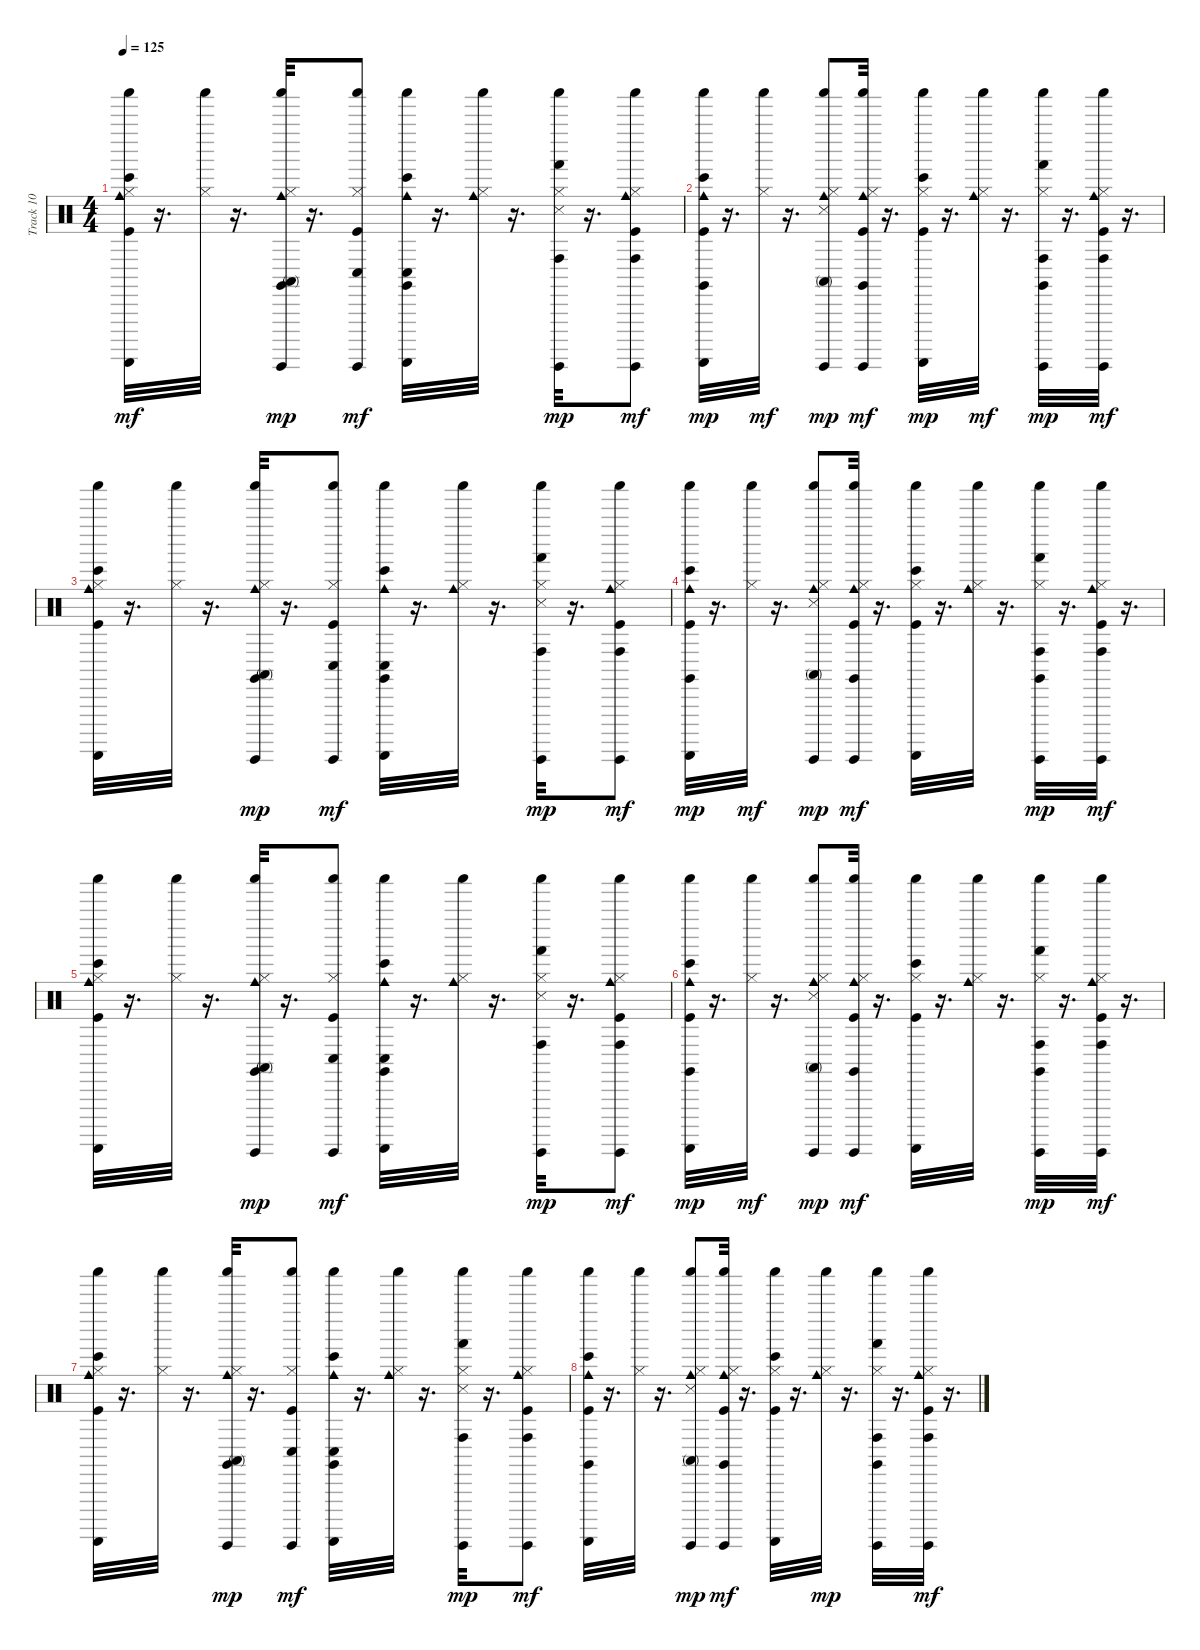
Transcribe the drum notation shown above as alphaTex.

\track ("Track 10" "Track 10") {instrument percussion}
\staff {score}
\articulation defaults
\ts (4 4)
\tempo 125
\clef neutral
\ks c
("Shaker (hit)" "Bongo High (hit)" "Cowbell medium (hit)" "Guiro (scrap-return)" "Kick (hit)" "Hi-Hat (closed)").32{dy mf} r.16{d} ("Shaker (hit)" "Hi-Hat (closed)").32 r.16{d} ("Shaker (hit)" "Claves (hit)" "Conga high (mute)" "Cowbell medium (hit)" "Guiro (hit)" "Hi-Hat (closed)").32{dy mp} r.16{d} ("Shaker (hit)" "Conga low (hit)" "Guiro (hit)" "Kick (hit)" "Hi-Hat (closed)").8{dy mf} ("Shaker (hit)" "Claves (hit)" "Conga low (hit)" "Bongo High (hit)" "Cowbell medium (hit)" "Guiro (scrap-return)").32 r.16{d} ("Shaker (hit)" "Cowbell medium (hit)" "Hi-Hat (closed)").32 r.16{d} ("Shaker (hit)" "Conga high (hit)" "Hand (hit)" "Guiro (hit)" "Hi-Hat (closed)" "Snare (side stick) 3").32{dy mp} r.16{d} ("Shaker (hit)" "Conga high (hit)" "Cowbell medium (hit)" "Guiro (hit)" "Kick (hit)" "Hi-Hat (closed)").8{dy mf} |
("Shaker (hit)" "Claves (hit)" "Bongo High (hit)" "Cowbell medium (hit)" "Guiro (scrap-return)" "Kick (hit)").32{dy mp} r.16{d} ("Shaker (hit)" "Hi-Hat (closed)").32{dy mf} r.16{d} ("Shaker (hit)" "Conga high (mute)" "Cowbell medium (hit)" "Guiro (hit)" "Hi-Hat (closed)" "Snare (side stick) 3").8{dy mp} ("Shaker (hit)" "Claves (hit)" "Cowbell medium (hit)" "Guiro (hit)" "Kick (hit)" "Hi-Hat (closed)").32{dy mf} r.16{d} ("Shaker (hit)" "Bongo High (hit)" "Guiro (scrap-return)" "Kick (hit)" "Hi-Hat (closed)").32{dy mp} r.16{d} ("Shaker (hit)" "Cowbell medium (hit)" "Hi-Hat (closed)").32{dy mf} r.16{d} ("Shaker (hit)" "Claves (hit)" "Conga high (hit)" "Hand (hit)" "Guiro (hit)" "Hi-Hat (closed)").32{dy mp} r.16{d} ("Shaker (hit)" "Conga high (hit)" "Cowbell medium (hit)" "Guiro (hit)" "Kick (hit)" "Hi-Hat (closed)").32{dy mf} r.16{d} |
("Shaker (hit)" "Bongo High (hit)" "Cowbell medium (hit)" "Guiro (scrap-return)" "Kick (hit)" "Hi-Hat (closed)").32 r.16{d} ("Shaker (hit)" "Hi-Hat (closed)").32 r.16{d} ("Shaker (hit)" "Claves (hit)" "Conga high (mute)" "Cowbell medium (hit)" "Guiro (hit)" "Hi-Hat (closed)").32{dy mp} r.16{d} ("Shaker (hit)" "Conga low (hit)" "Guiro (hit)" "Kick (hit)" "Hi-Hat (closed)").8{dy mf} ("Shaker (hit)" "Claves (hit)" "Conga low (hit)" "Bongo High (hit)" "Cowbell medium (hit)" "Guiro (scrap-return)").32 r.16{d} ("Shaker (hit)" "Cowbell medium (hit)" "Hi-Hat (closed)").32 r.16{d} ("Shaker (hit)" "Conga high (hit)" "Hand (hit)" "Guiro (hit)" "Hi-Hat (closed)" "Snare (side stick) 3").32{dy mp} r.16{d} ("Shaker (hit)" "Conga high (hit)" "Cowbell medium (hit)" "Guiro (hit)" "Kick (hit)" "Hi-Hat (closed)").8{dy mf} |
("Shaker (hit)" "Claves (hit)" "Bongo High (hit)" "Cowbell medium (hit)" "Guiro (scrap-return)" "Kick (hit)").32{dy mp} r.16{d} ("Shaker (hit)" "Hi-Hat (closed)").32{dy mf} r.16{d} ("Shaker (hit)" "Conga high (mute)" "Cowbell medium (hit)" "Guiro (hit)" "Hi-Hat (closed)" "Snare (side stick) 3").8{dy mp} ("Shaker (hit)" "Claves (hit)" "Cowbell medium (hit)" "Guiro (hit)" "Kick (hit)" "Hi-Hat (closed)").32{dy mf} r.16{d} ("Shaker (hit)" "Bongo High (hit)" "Guiro (scrap-return)" "Kick (hit)" "Hi-Hat (closed)").32 r.16{d} ("Shaker (hit)" "Cowbell medium (hit)" "Hi-Hat (closed)").32 r.16{d} ("Shaker (hit)" "Claves (hit)" "Conga high (hit)" "Hand (hit)" "Guiro (hit)" "Hi-Hat (closed)").32{dy mp} r.16{d} ("Shaker (hit)" "Conga high (hit)" "Cowbell medium (hit)" "Guiro (hit)" "Kick (hit)" "Hi-Hat (closed)").32{dy mf} r.16{d} |
("Shaker (hit)" "Bongo High (hit)" "Cowbell medium (hit)" "Guiro (scrap-return)" "Kick (hit)" "Hi-Hat (closed)").32 r.16{d} ("Shaker (hit)" "Hi-Hat (closed)").32 r.16{d} ("Shaker (hit)" "Claves (hit)" "Conga high (mute)" "Cowbell medium (hit)" "Guiro (hit)" "Hi-Hat (closed)").32{dy mp} r.16{d} ("Shaker (hit)" "Conga low (hit)" "Guiro (hit)" "Kick (hit)" "Hi-Hat (closed)").8{dy mf} ("Shaker (hit)" "Claves (hit)" "Conga low (hit)" "Bongo High (hit)" "Cowbell medium (hit)" "Guiro (scrap-return)").32 r.16{d} ("Shaker (hit)" "Cowbell medium (hit)" "Hi-Hat (closed)").32 r.16{d} ("Shaker (hit)" "Conga high (hit)" "Hand (hit)" "Guiro (hit)" "Hi-Hat (closed)" "Snare (side stick) 3").32{dy mp} r.16{d} ("Shaker (hit)" "Conga high (hit)" "Cowbell medium (hit)" "Guiro (hit)" "Kick (hit)" "Hi-Hat (closed)").8{dy mf} |
("Shaker (hit)" "Claves (hit)" "Bongo High (hit)" "Cowbell medium (hit)" "Guiro (scrap-return)" "Kick (hit)").32{dy mp} r.16{d} ("Shaker (hit)" "Hi-Hat (closed)").32{dy mf} r.16{d} ("Shaker (hit)" "Conga high (mute)" "Cowbell medium (hit)" "Guiro (hit)" "Hi-Hat (closed)" "Snare (side stick) 3").8{dy mp} ("Shaker (hit)" "Claves (hit)" "Cowbell medium (hit)" "Guiro (hit)" "Kick (hit)" "Hi-Hat (closed)").32{dy mf} r.16{d} ("Shaker (hit)" "Bongo High (hit)" "Guiro (scrap-return)" "Kick (hit)" "Hi-Hat (closed)").32 r.16{d} ("Shaker (hit)" "Cowbell medium (hit)" "Hi-Hat (closed)").32 r.16{d} ("Shaker (hit)" "Claves (hit)" "Conga high (hit)" "Hand (hit)" "Guiro (hit)" "Hi-Hat (closed)").32{dy mp} r.16{d} ("Shaker (hit)" "Conga high (hit)" "Cowbell medium (hit)" "Guiro (hit)" "Kick (hit)" "Hi-Hat (closed)").32{dy mf} r.16{d} |
("Shaker (hit)" "Bongo High (hit)" "Cowbell medium (hit)" "Guiro (scrap-return)" "Kick (hit)" "Hi-Hat (closed)").32 r.16{d} ("Shaker (hit)" "Hi-Hat (closed)").32 r.16{d} ("Shaker (hit)" "Claves (hit)" "Conga high (mute)" "Cowbell medium (hit)" "Guiro (hit)" "Hi-Hat (closed)").32{dy mp} r.16{d} ("Shaker (hit)" "Conga low (hit)" "Guiro (hit)" "Kick (hit)" "Hi-Hat (closed)").8{dy mf} ("Shaker (hit)" "Claves (hit)" "Conga low (hit)" "Bongo High (hit)" "Cowbell medium (hit)" "Guiro (scrap-return)").32 r.16{d} ("Shaker (hit)" "Cowbell medium (hit)" "Hi-Hat (closed)").32 r.16{d} ("Shaker (hit)" "Conga high (hit)" "Hand (hit)" "Guiro (hit)" "Hi-Hat (closed)" "Snare (side stick) 3").32{dy mp} r.16{d} ("Shaker (hit)" "Conga high (hit)" "Cowbell medium (hit)" "Guiro (hit)" "Kick (hit)" "Hi-Hat (closed)").8{dy mf} |
("Shaker (hit)" "Claves (hit)" "Bongo High (hit)" "Cowbell medium (hit)" "Guiro (scrap-return)" "Kick (hit)").32 r.16{d} ("Shaker (hit)" "Hi-Hat (closed)").32 r.16{d} ("Shaker (hit)" "Conga high (mute)" "Cowbell medium (hit)" "Guiro (hit)" "Hi-Hat (closed)" "Snare (side stick) 3").8{dy mp} ("Shaker (hit)" "Claves (hit)" "Cowbell medium (hit)" "Guiro (hit)" "Kick (hit)" "Hi-Hat (closed)").32{dy mf} r.16{d} ("Shaker (hit)" "Bongo High (hit)" "Guiro (scrap-return)" "Kick (hit)" "Hi-Hat (closed)").32 r.16{d} ("Shaker (hit)" "Cowbell medium (hit)" "Hi-Hat (closed)").32{dy mp} r.16{d} ("Shaker (hit)" "Claves (hit)" "Conga high (hit)" "Hand (hit)" "Guiro (hit)" "Hi-Hat (closed)").32 r.16{d} ("Shaker (hit)" "Conga high (hit)" "Cowbell medium (hit)" "Guiro (hit)" "Kick (hit)" "Hi-Hat (closed)").32{dy mf} r.16{d}
